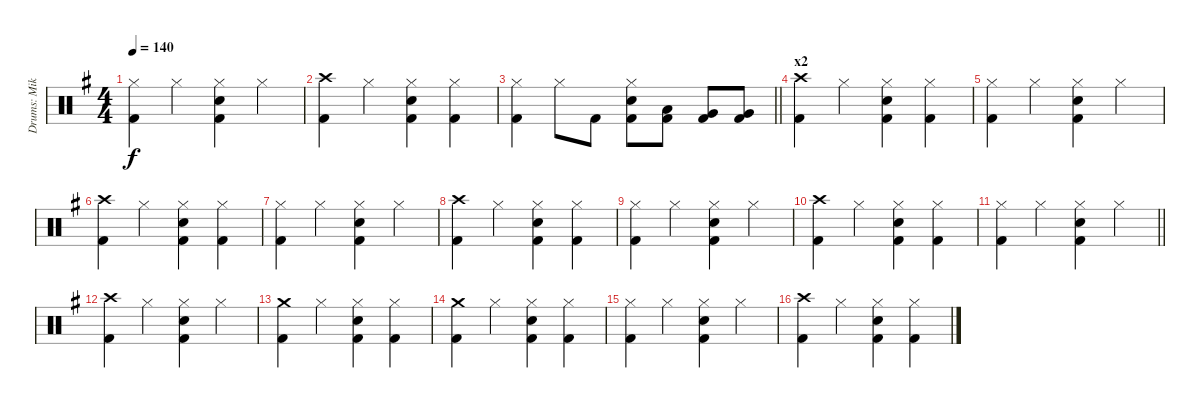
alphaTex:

\track ("Drums: Mike Terrana" "Drums: Mik") {instrument percussion}
\staff {score}
\articulation defaults
\ts (4 4)
\tempo 140
\clef neutral
\ks eminor
("Hi-Hat (closed)" "Kick (hit) 2").4{dy f} "Hi-Hat (closed)".4 ("Hi-Hat (closed)" "Electric Snare (hit)" "Kick (hit) 2").4 "Hi-Hat (closed)".4 |
("Crash high (hit)" "Kick (hit) 2").4 "Hi-Hat (closed)".4 ("Hi-Hat (closed)" "Electric Snare (hit)" "Kick (hit) 2").4 ("Hi-Hat (closed)" "Kick (hit) 2").4 |
\barLineRight lightlight
("Hi-Hat (closed)" "Kick (hit) 2").4 "Hi-Hat (closed)".8 "Kick (hit) 2".8 ("Hi-Hat (closed)" "Electric Snare (hit)" "Kick (hit) 2").8 ("Low Tom (hit)" "Kick (hit) 2").8 ("Very Low Tom (hit)" "Kick (hit) 2").8 ("Very Low Tom (hit)" "Kick (hit) 2").8 |
\section ("" "x2")
("Crash high (hit)" "Kick (hit) 2").4 "Hi-Hat (closed)".4 ("Hi-Hat (closed)" "Electric Snare (hit)" "Kick (hit) 2").4 ("Hi-Hat (closed)" "Kick (hit) 2").4 |
("Hi-Hat (closed)" "Kick (hit) 2").4 "Hi-Hat (closed)".4 ("Hi-Hat (closed)" "Electric Snare (hit)" "Kick (hit) 2").4 "Hi-Hat (closed)".4 |
("Crash high (hit)" "Kick (hit) 2").4 "Hi-Hat (closed)".4 ("Hi-Hat (closed)" "Electric Snare (hit)" "Kick (hit) 2").4 ("Hi-Hat (closed)" "Kick (hit) 2").4 |
("Hi-Hat (closed)" "Kick (hit) 2").4 "Hi-Hat (closed)".4 ("Hi-Hat (closed)" "Electric Snare (hit)" "Kick (hit) 2").4 "Hi-Hat (closed)".4 |
("Crash high (hit)" "Kick (hit) 2").4 "Hi-Hat (closed)".4 ("Hi-Hat (closed)" "Electric Snare (hit)" "Kick (hit) 2").4 ("Hi-Hat (closed)" "Kick (hit) 2").4 |
("Hi-Hat (closed)" "Kick (hit) 2").4 "Hi-Hat (closed)".4 ("Hi-Hat (closed)" "Electric Snare (hit)" "Kick (hit) 2").4 "Hi-Hat (closed)".4 |
("Crash high (hit)" "Kick (hit) 2").4 "Hi-Hat (closed)".4 ("Hi-Hat (closed)" "Electric Snare (hit)" "Kick (hit) 2").4 ("Hi-Hat (closed)" "Kick (hit) 2").4 |
\barLineRight lightlight
("Hi-Hat (closed)" "Kick (hit) 2").4 "Hi-Hat (closed)".4 ("Hi-Hat (closed)" "Electric Snare (hit)" "Kick (hit) 2").4 "Hi-Hat (closed)".4 |
("Crash high (hit)" "Kick (hit) 2").4 "Hi-Hat (closed)".4 ("Hi-Hat (closed)" "Electric Snare (hit)" "Kick (hit) 2").4 "Hi-Hat (closed)".4 |
("Crash medium (hit)" "Kick (hit) 2").4 "Hi-Hat (closed)".4 ("Hi-Hat (closed)" "Electric Snare (hit)" "Kick (hit) 2").4 ("Hi-Hat (closed)" "Kick (hit) 2").4 |
("Crash medium (hit)" "Kick (hit) 2").4 "Hi-Hat (closed)".4 ("Hi-Hat (closed)" "Electric Snare (hit)" "Kick (hit) 2").4 ("Hi-Hat (closed)" "Kick (hit) 2").4 |
("Hi-Hat (closed)" "Kick (hit) 2").4 "Hi-Hat (closed)".4 ("Hi-Hat (closed)" "Electric Snare (hit)" "Kick (hit) 2").4 "Hi-Hat (closed)".4 |
("Crash high (hit)" "Kick (hit) 2").4 "Hi-Hat (closed)".4 ("Hi-Hat (closed)" "Electric Snare (hit)" "Kick (hit) 2").4 ("Hi-Hat (closed)" "Kick (hit) 2").4
